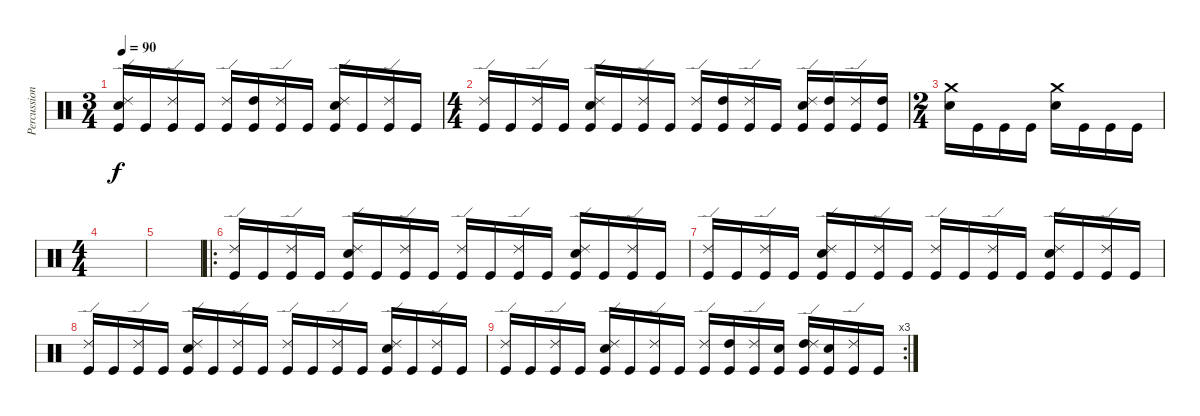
\track ("Percussioni" "Percussion") {instrument percussion}
\staff {score}
\articulation defaults
\ts (3 4)
\tempo 90
\clef neutral
\ks c
("Snare (hit) 2" "Ride (edge) 2" "Kick (hit)").16{dy f} "Kick (hit)".16 ("Ride (edge) 2" "Kick (hit)").16 "Kick (hit)".16 ("Ride (edge) 2" "Kick (hit)").16 ("High Tom (hit)" "Kick (hit)").16 ("Ride (edge) 2" "Kick (hit)").16 "Kick (hit)".16 ("Snare (hit) 2" "Ride (edge) 2" "Kick (hit)").16 "Kick (hit)".16 ("Ride (edge) 2" "Kick (hit)").16 "Kick (hit)".16 |
\ts (4 4)
("Ride (edge) 2" "Kick (hit)").16 "Kick (hit)".16 ("Ride (edge) 2" "Kick (hit)").16 "Kick (hit)".16 ("Snare (hit) 2" "Ride (edge) 2" "Kick (hit)").16 "Kick (hit)".16 ("Ride (edge) 2" "Kick (hit)").16 "Kick (hit)".16 ("Ride (edge) 2" "Kick (hit)").16 ("High Tom (hit)" "Kick (hit)").16 ("Ride (edge) 2" "Kick (hit)").16 "Kick (hit)".16 ("Snare (hit) 2" "Ride (edge) 2" "Kick (hit)").16 ("High Tom (hit)" "Kick (hit)").16 ("Ride (edge) 2" "Kick (hit)").16 ("High Tom (hit)" "Kick (hit)").16 |
\ts (2 4)
("Snare (hit) 2" "Crash medium (hit)").16 "Kick (hit)".16 "Kick (hit)".16 "Kick (hit)".16 ("Snare (hit) 2" "Crash medium (hit)").16 "Kick (hit)".16 "Kick (hit)".16 "Kick (hit)".16 |
\ts (4 4)
|
|
\ro
("Ride (edge) 2" "Kick (hit)").16 "Kick (hit)".16 ("Ride (edge) 2" "Kick (hit)").16 "Kick (hit)".16 ("Snare (hit) 2" "Ride (edge) 2" "Kick (hit)").16 "Kick (hit)".16 ("Ride (edge) 2" "Kick (hit)").16 "Kick (hit)".16 ("Ride (edge) 2" "Kick (hit)").16 "Kick (hit)".16 ("Ride (edge) 2" "Kick (hit)").16 "Kick (hit)".16 ("Snare (hit) 2" "Ride (edge) 2" "Kick (hit)").16 "Kick (hit)".16 ("Ride (edge) 2" "Kick (hit)").16 "Kick (hit)".16 |
("Ride (edge) 2" "Kick (hit)").16 "Kick (hit)".16 ("Ride (edge) 2" "Kick (hit)").16 "Kick (hit)".16 ("Snare (hit) 2" "Ride (edge) 2" "Kick (hit)").16 "Kick (hit)".16 ("Ride (edge) 2" "Kick (hit)").16 "Kick (hit)".16 ("Ride (edge) 2" "Kick (hit)").16 "Kick (hit)".16 ("Ride (edge) 2" "Kick (hit)").16 "Kick (hit)".16 ("Snare (hit) 2" "Ride (edge) 2" "Kick (hit)").16 "Kick (hit)".16 ("Ride (edge) 2" "Kick (hit)").16 "Kick (hit)".16 |
("Ride (edge) 2" "Kick (hit)").16 "Kick (hit)".16 ("Ride (edge) 2" "Kick (hit)").16 "Kick (hit)".16 ("Snare (hit) 2" "Ride (edge) 2" "Kick (hit)").16 "Kick (hit)".16 ("Ride (edge) 2" "Kick (hit)").16 "Kick (hit)".16 ("Ride (edge) 2" "Kick (hit)").16 "Kick (hit)".16 ("Ride (edge) 2" "Kick (hit)").16 "Kick (hit)".16 ("Snare (hit) 2" "Ride (edge) 2" "Kick (hit)").16 "Kick (hit)".16 ("Ride (edge) 2" "Kick (hit)").16 "Kick (hit)".16 |
\rc 3
("Ride (edge) 2" "Kick (hit)").16 "Kick (hit)".16 ("Ride (edge) 2" "Kick (hit)").16 "Kick (hit)".16 ("Snare (hit) 2" "Ride (edge) 2" "Kick (hit)").16 "Kick (hit)".16 ("Ride (edge) 2" "Kick (hit)").16 "Kick (hit)".16 ("Ride (edge) 2" "Kick (hit)").16 ("High Tom (hit)" "Kick (hit)").16 ("Ride (edge) 2" "Kick (hit)").16 ("Snare (hit) 2" "Kick (hit)").16 ("High Tom (hit)" "Ride (edge) 2" "Kick (hit)").16 ("Snare (hit) 2" "Kick (hit)").16 ("Ride (edge) 2" "Kick (hit)").16 "Kick (hit)".16
